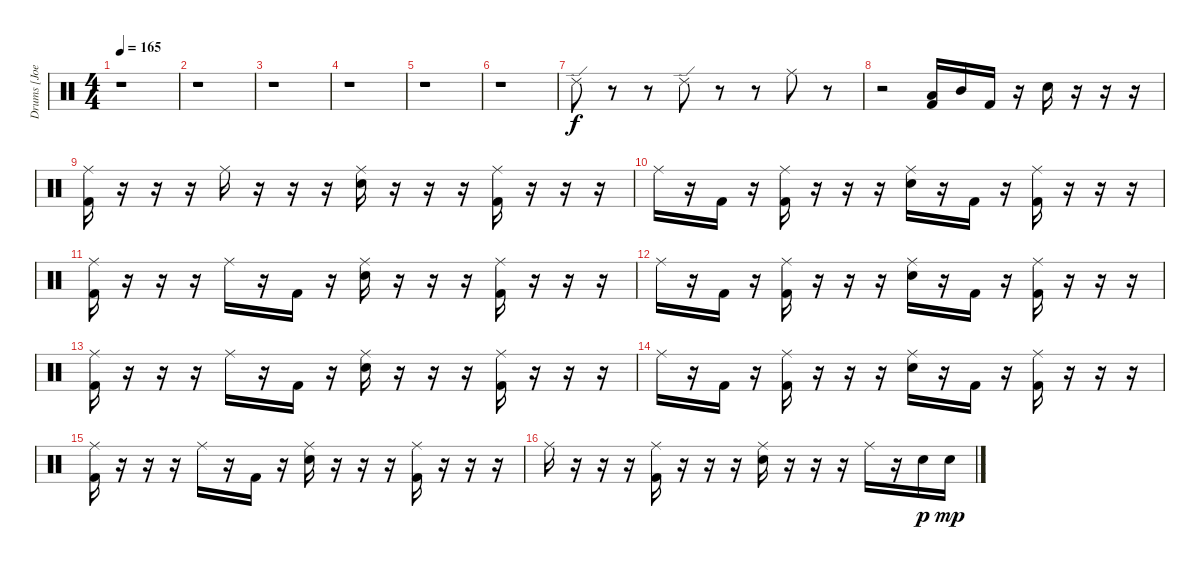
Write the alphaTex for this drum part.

\track ("Drums [Joel Paolucci]" "Drums [Joe") {instrument percussion}
\staff {score}
\articulation defaults
\ts (4 4)
\tempo 165
\clef neutral
\ks c
r.1{dy f} |
r.1 |
r.1 |
r.1 |
r.1 |
r.1 |
"Ride (edge) 2".8 r.8 r.8 "Ride (edge) 2".8 r.8 r.8 "Ride (middle)".8 r.8 |
r.2 ("Low Tom (hit)" "Kick (hit) 2").16 "Mid Tom (hit)".16 "Kick (hit) 2".16 r.16 "Electric Snare (hit)".16 r.16 r.16 r.16 |
("Ride (middle)" "Kick (hit) 2").16 r.16 r.16 r.16 "Ride (middle)".16 r.16 r.16 r.16 ("Ride (middle)" "Electric Snare (hit)").16 r.16 r.16 r.16 ("Ride (middle)" "Kick (hit) 2").16 r.16 r.16 r.16 |
"Ride (middle)".16 r.16 "Kick (hit) 2".16 r.16 ("Ride (middle)" "Kick (hit) 2").16 r.16 r.16 r.16 ("Ride (middle)" "Electric Snare (hit)").16 r.16 "Kick (hit) 2".16 r.16 ("Ride (middle)" "Kick (hit) 2").16 r.16 r.16 r.16 |
("Ride (middle)" "Kick (hit) 2").16 r.16 r.16 r.16 "Ride (middle)".16 r.16 "Kick (hit) 2".16 r.16 ("Ride (middle)" "Electric Snare (hit)").16 r.16 r.16 r.16 ("Ride (middle)" "Kick (hit) 2").16 r.16 r.16 r.16 |
"Ride (middle)".16 r.16 "Kick (hit) 2".16 r.16 ("Ride (middle)" "Kick (hit) 2").16 r.16 r.16 r.16 ("Ride (middle)" "Electric Snare (hit)").16 r.16 "Kick (hit) 2".16 r.16 ("Ride (middle)" "Kick (hit) 2").16 r.16 r.16 r.16 |
("Ride (middle)" "Kick (hit) 2").16 r.16 r.16 r.16 "Ride (middle)".16 r.16 "Kick (hit) 2".16 r.16 ("Ride (middle)" "Electric Snare (hit)").16 r.16 r.16 r.16 ("Ride (middle)" "Kick (hit) 2").16 r.16 r.16 r.16 |
"Ride (middle)".16 r.16 "Kick (hit) 2".16 r.16 ("Ride (middle)" "Kick (hit) 2").16 r.16 r.16 r.16 ("Ride (middle)" "Electric Snare (hit)").16 r.16 "Kick (hit) 2".16 r.16 ("Ride (middle)" "Kick (hit) 2").16 r.16 r.16 r.16 |
("Ride (middle)" "Kick (hit) 2").16 r.16 r.16 r.16 "Ride (middle)".16 r.16 "Kick (hit) 2".16 r.16 ("Ride (middle)" "Electric Snare (hit)").16 r.16 r.16 r.16 ("Ride (middle)" "Kick (hit) 2").16 r.16 r.16 r.16 |
"Ride (middle)".16 r.16 r.16 r.16 ("Ride (middle)" "Kick (hit) 2").16 r.16 r.16 r.16 ("Ride (middle)" "Electric Snare (hit)").16 r.16 r.16 r.16 "Ride (middle)".16 r.16 "Electric Snare (hit)".16{dy p} "Electric Snare (hit)".16{dy mp}
